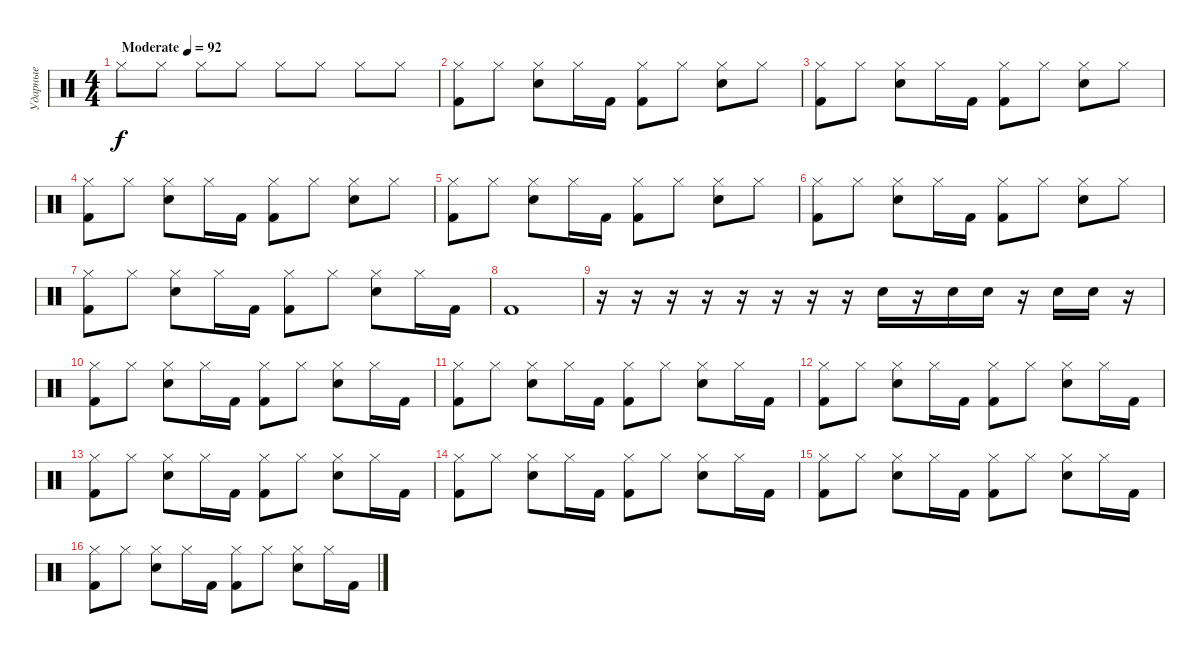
\track ("Ударные" "Ударные") {instrument percussion}
\staff {score}
\articulation defaults
\ts (4 4)
\tempo (92 "Moderate")
\clef neutral
\ks c "Hi-Hat (closed)".8{dy f} "Hi-Hat (closed)".8 "Hi-Hat (closed)".8 "Hi-Hat (closed)".8 "Hi-Hat (closed)".8 "Hi-Hat (closed)".8 "Hi-Hat (closed)".8 "Hi-Hat (closed)".8
|
("Hi-Hat (closed)" "Kick (hit) 2").8 "Hi-Hat (closed)".8 ("Hi-Hat (closed)" "Snare (hit) 2").8 "Hi-Hat (closed)".16 "Kick (hit) 2".16 ("Hi-Hat (closed)" "Kick (hit) 2").8 "Hi-Hat (closed)".8 ("Hi-Hat (closed)" "Snare (hit) 2").8 "Hi-Hat (closed)".8 |
("Hi-Hat (closed)" "Kick (hit) 2").8 "Hi-Hat (closed)".8 ("Hi-Hat (closed)" "Snare (hit) 2").8 "Hi-Hat (closed)".16 "Kick (hit) 2".16 ("Hi-Hat (closed)" "Kick (hit) 2").8 "Hi-Hat (closed)".8 ("Hi-Hat (closed)" "Snare (hit) 2").8 "Hi-Hat (closed)".8 |
("Hi-Hat (closed)" "Kick (hit) 2").8 "Hi-Hat (closed)".8 ("Hi-Hat (closed)" "Snare (hit) 2").8 "Hi-Hat (closed)".16 "Kick (hit) 2".16 ("Hi-Hat (closed)" "Kick (hit) 2").8 "Hi-Hat (closed)".8 ("Hi-Hat (closed)" "Snare (hit) 2").8 "Hi-Hat (closed)".8 |
("Hi-Hat (closed)" "Kick (hit) 2").8 "Hi-Hat (closed)".8 ("Hi-Hat (closed)" "Snare (hit) 2").8 "Hi-Hat (closed)".16 "Kick (hit) 2".16 ("Hi-Hat (closed)" "Kick (hit) 2").8 "Hi-Hat (closed)".8 ("Hi-Hat (closed)" "Snare (hit) 2").8 "Hi-Hat (closed)".8 |
("Hi-Hat (closed)" "Kick (hit) 2").8 "Hi-Hat (closed)".8 ("Hi-Hat (closed)" "Snare (hit) 2").8 "Hi-Hat (closed)".16 "Kick (hit) 2".16 ("Hi-Hat (closed)" "Kick (hit) 2").8 "Hi-Hat (closed)".8 ("Hi-Hat (closed)" "Snare (hit) 2").8 "Hi-Hat (closed)".8 |
("Hi-Hat (closed)" "Kick (hit) 2").8 "Hi-Hat (closed)".8 ("Hi-Hat (closed)" "Snare (hit) 2").8 "Hi-Hat (closed)".16 "Kick (hit) 2".16 ("Hi-Hat (closed)" "Kick (hit) 2").8 "Hi-Hat (closed)".8 ("Hi-Hat (closed)" "Snare (hit) 2").8 "Hi-Hat (closed)".16 "Kick (hit) 2".16 |
"Kick (hit) 2".1 |
r.16 r.16 r.16 r.16 r.16 r.16 r.16 r.16 "Snare (hit) 2".16 r.16 "Snare (hit) 2".16 "Snare (hit) 2".16 r.16 "Snare (hit) 2".16 "Snare (hit) 2".16 r.16 |
("Hi-Hat (closed)" "Kick (hit) 2").8 "Hi-Hat (closed)".8 ("Hi-Hat (closed)" "Snare (hit) 2").8 "Hi-Hat (closed)".16 "Kick (hit) 2".16 ("Hi-Hat (closed)" "Kick (hit) 2").8 "Hi-Hat (closed)".8 ("Hi-Hat (closed)" "Snare (hit) 2").8 "Hi-Hat (closed)".16 "Kick (hit) 2".16 |
("Hi-Hat (closed)" "Kick (hit) 2").8 "Hi-Hat (closed)".8 ("Hi-Hat (closed)" "Snare (hit) 2").8 "Hi-Hat (closed)".16 "Kick (hit) 2".16 ("Hi-Hat (closed)" "Kick (hit) 2").8 "Hi-Hat (closed)".8 ("Hi-Hat (closed)" "Snare (hit) 2").8 "Hi-Hat (closed)".16 "Kick (hit) 2".16 |
("Hi-Hat (closed)" "Kick (hit) 2").8 "Hi-Hat (closed)".8 ("Hi-Hat (closed)" "Snare (hit) 2").8 "Hi-Hat (closed)".16 "Kick (hit) 2".16 ("Hi-Hat (closed)" "Kick (hit) 2").8 "Hi-Hat (closed)".8 ("Hi-Hat (closed)" "Snare (hit) 2").8 "Hi-Hat (closed)".16 "Kick (hit) 2".16 |
("Hi-Hat (closed)" "Kick (hit) 2").8 "Hi-Hat (closed)".8 ("Hi-Hat (closed)" "Snare (hit) 2").8 "Hi-Hat (closed)".16 "Kick (hit) 2".16 ("Hi-Hat (closed)" "Kick (hit) 2").8 "Hi-Hat (closed)".8 ("Hi-Hat (closed)" "Snare (hit) 2").8 "Hi-Hat (closed)".16 "Kick (hit) 2".16 |
("Hi-Hat (closed)" "Kick (hit) 2").8 "Hi-Hat (closed)".8 ("Hi-Hat (closed)" "Snare (hit) 2").8 "Hi-Hat (closed)".16 "Kick (hit) 2".16 ("Hi-Hat (closed)" "Kick (hit) 2").8 "Hi-Hat (closed)".8 ("Hi-Hat (closed)" "Snare (hit) 2").8 "Hi-Hat (closed)".16 "Kick (hit) 2".16 |
("Hi-Hat (closed)" "Kick (hit) 2").8 "Hi-Hat (closed)".8 ("Hi-Hat (closed)" "Snare (hit) 2").8 "Hi-Hat (closed)".16 "Kick (hit) 2".16 ("Hi-Hat (closed)" "Kick (hit) 2").8 "Hi-Hat (closed)".8 ("Hi-Hat (closed)" "Snare (hit) 2").8 "Hi-Hat (closed)".16 "Kick (hit) 2".16 |
("Hi-Hat (closed)" "Kick (hit) 2").8 "Hi-Hat (closed)".8 ("Hi-Hat (closed)" "Snare (hit) 2").8 "Hi-Hat (closed)".16 "Kick (hit) 2".16 ("Hi-Hat (closed)" "Kick (hit) 2").8 "Hi-Hat (closed)".8 ("Hi-Hat (closed)" "Snare (hit) 2").8 "Hi-Hat (closed)".16 "Kick (hit) 2".16
